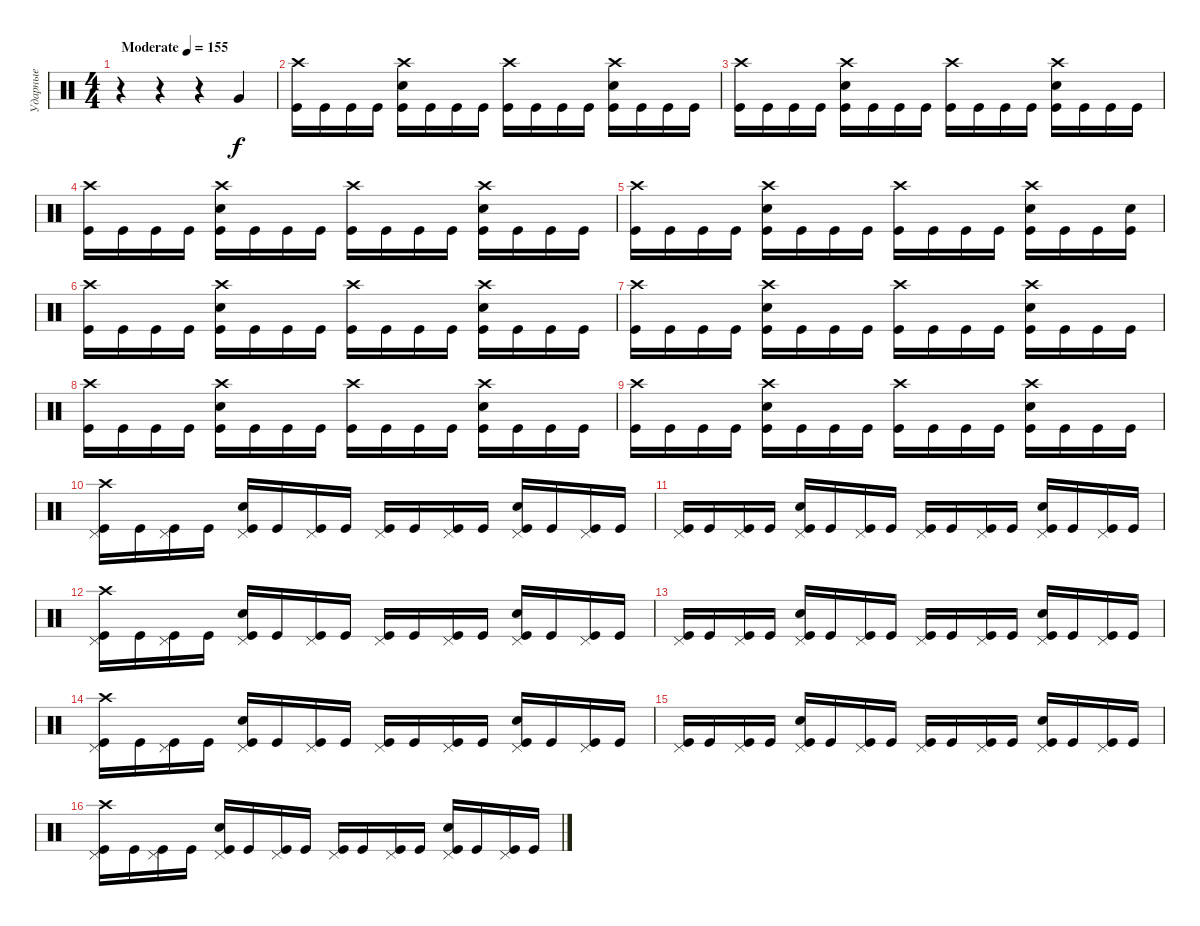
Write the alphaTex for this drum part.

\track ("Ударные" "Ударные") {instrument percussion}
\staff {score}
\articulation defaults
\ts (4 4)
\tempo (155 "Moderate")
\clef neutral
\ks c
r.4{dy f} r.4 r.4 "Very Low Tom (hit)".4 |
("Crash high (hit)" "Kick (hit)").16 "Kick (hit)".16 "Kick (hit)".16 "Kick (hit)".16 ("Electric Snare (hit)" "Crash high (hit)" "Kick (hit)").16 "Kick (hit)".16 "Kick (hit)".16 "Kick (hit)".16 ("Crash high (hit)" "Kick (hit)").16 "Kick (hit)".16 "Kick (hit)".16 "Kick (hit)".16 ("Electric Snare (hit)" "Crash high (hit)" "Kick (hit)").16 "Kick (hit)".16 "Kick (hit)".16 "Kick (hit)".16 |
("Crash high (hit)" "Kick (hit)").16 "Kick (hit)".16 "Kick (hit)".16 "Kick (hit)".16 ("Electric Snare (hit)" "Crash high (hit)" "Kick (hit)").16 "Kick (hit)".16 "Kick (hit)".16 "Kick (hit)".16 ("Crash high (hit)" "Kick (hit)").16 "Kick (hit)".16 "Kick (hit)".16 "Kick (hit)".16 ("Electric Snare (hit)" "Crash high (hit)" "Kick (hit)").16 "Kick (hit)".16 "Kick (hit)".16 "Kick (hit)".16 |
("Crash high (hit)" "Kick (hit)").16 "Kick (hit)".16 "Kick (hit)".16 "Kick (hit)".16 ("Electric Snare (hit)" "Crash high (hit)" "Kick (hit)").16 "Kick (hit)".16 "Kick (hit)".16 "Kick (hit)".16 ("Crash high (hit)" "Kick (hit)").16 "Kick (hit)".16 "Kick (hit)".16 "Kick (hit)".16 ("Electric Snare (hit)" "Crash high (hit)" "Kick (hit)").16 "Kick (hit)".16 "Kick (hit)".16 "Kick (hit)".16 |
("Crash high (hit)" "Kick (hit)").16 "Kick (hit)".16 "Kick (hit)".16 "Kick (hit)".16 ("Electric Snare (hit)" "Crash high (hit)" "Kick (hit)").16 "Kick (hit)".16 "Kick (hit)".16 "Kick (hit)".16 ("Crash high (hit)" "Kick (hit)").16 "Kick (hit)".16 "Kick (hit)".16 "Kick (hit)".16 ("Electric Snare (hit)" "Crash high (hit)" "Kick (hit)").16 "Kick (hit)".16 "Kick (hit)".16 ("Electric Snare (hit)" "Kick (hit)").16 |
("Crash high (hit)" "Kick (hit)").16 "Kick (hit)".16 "Kick (hit)".16 "Kick (hit)".16 ("Electric Snare (hit)" "Crash high (hit)" "Kick (hit)").16 "Kick (hit)".16 "Kick (hit)".16 "Kick (hit)".16 ("Crash high (hit)" "Kick (hit)").16 "Kick (hit)".16 "Kick (hit)".16 "Kick (hit)".16 ("Electric Snare (hit)" "Crash high (hit)" "Kick (hit)").16 "Kick (hit)".16 "Kick (hit)".16 "Kick (hit)".16 |
("Crash high (hit)" "Kick (hit)").16 "Kick (hit)".16 "Kick (hit)".16 "Kick (hit)".16 ("Electric Snare (hit)" "Crash high (hit)" "Kick (hit)").16 "Kick (hit)".16 "Kick (hit)".16 "Kick (hit)".16 ("Crash high (hit)" "Kick (hit)").16 "Kick (hit)".16 "Kick (hit)".16 "Kick (hit)".16 ("Electric Snare (hit)" "Crash high (hit)" "Kick (hit)").16 "Kick (hit)".16 "Kick (hit)".16 "Kick (hit)".16 |
("Crash high (hit)" "Kick (hit)").16 "Kick (hit)".16 "Kick (hit)".16 "Kick (hit)".16 ("Electric Snare (hit)" "Crash high (hit)" "Kick (hit)").16 "Kick (hit)".16 "Kick (hit)".16 "Kick (hit)".16 ("Crash high (hit)" "Kick (hit)").16 "Kick (hit)".16 "Kick (hit)".16 "Kick (hit)".16 ("Electric Snare (hit)" "Crash high (hit)" "Kick (hit)").16 "Kick (hit)".16 "Kick (hit)".16 "Kick (hit)".16 |
("Crash high (hit)" "Kick (hit)").16 "Kick (hit)".16 "Kick (hit)".16 "Kick (hit)".16 ("Electric Snare (hit)" "Crash high (hit)" "Kick (hit)").16 "Kick (hit)".16 "Kick (hit)".16 "Kick (hit)".16 ("Crash high (hit)" "Kick (hit)").16 "Kick (hit)".16 "Kick (hit)".16 "Kick (hit)".16 ("Electric Snare (hit)" "Crash high (hit)" "Kick (hit)").16 "Kick (hit)".16 "Kick (hit)".16 "Kick (hit)".16 |
("Pedal Hi-Hat (hit)" "Crash high (hit)" "Kick (hit)").16 "Kick (hit)".16 ("Pedal Hi-Hat (hit)" "Kick (hit)").16 "Kick (hit)".16 ("Pedal Hi-Hat (hit)" "Electric Snare (hit)" "Kick (hit)").16 "Kick (hit)".16 ("Pedal Hi-Hat (hit)" "Kick (hit)").16 "Kick (hit)".16 ("Pedal Hi-Hat (hit)" "Kick (hit)").16 "Kick (hit)".16 ("Pedal Hi-Hat (hit)" "Kick (hit)").16 "Kick (hit)".16 ("Pedal Hi-Hat (hit)" "Electric Snare (hit)" "Kick (hit)").16 "Kick (hit)".16 ("Pedal Hi-Hat (hit)" "Kick (hit)").16 "Kick (hit)".16 |
("Pedal Hi-Hat (hit)" "Kick (hit)").16 "Kick (hit)".16 ("Pedal Hi-Hat (hit)" "Kick (hit)").16 "Kick (hit)".16 ("Pedal Hi-Hat (hit)" "Electric Snare (hit)" "Kick (hit)").16 "Kick (hit)".16 ("Pedal Hi-Hat (hit)" "Kick (hit)").16 "Kick (hit)".16 ("Pedal Hi-Hat (hit)" "Kick (hit)").16 "Kick (hit)".16 ("Pedal Hi-Hat (hit)" "Kick (hit)").16 "Kick (hit)".16 ("Pedal Hi-Hat (hit)" "Electric Snare (hit)" "Kick (hit)").16 "Kick (hit)".16 ("Pedal Hi-Hat (hit)" "Kick (hit)").16 "Kick (hit)".16 |
("Pedal Hi-Hat (hit)" "Crash high (hit)" "Kick (hit)").16 "Kick (hit)".16 ("Pedal Hi-Hat (hit)" "Kick (hit)").16 "Kick (hit)".16 ("Pedal Hi-Hat (hit)" "Electric Snare (hit)" "Kick (hit)").16 "Kick (hit)".16 ("Pedal Hi-Hat (hit)" "Kick (hit)").16 "Kick (hit)".16 ("Pedal Hi-Hat (hit)" "Kick (hit)").16 "Kick (hit)".16 ("Pedal Hi-Hat (hit)" "Kick (hit)").16 "Kick (hit)".16 ("Pedal Hi-Hat (hit)" "Electric Snare (hit)" "Kick (hit)").16 "Kick (hit)".16 ("Pedal Hi-Hat (hit)" "Kick (hit)").16 "Kick (hit)".16 |
("Pedal Hi-Hat (hit)" "Kick (hit)").16 "Kick (hit)".16 ("Pedal Hi-Hat (hit)" "Kick (hit)").16 "Kick (hit)".16 ("Pedal Hi-Hat (hit)" "Electric Snare (hit)" "Kick (hit)").16 "Kick (hit)".16 ("Pedal Hi-Hat (hit)" "Kick (hit)").16 "Kick (hit)".16 ("Pedal Hi-Hat (hit)" "Kick (hit)").16 "Kick (hit)".16 ("Pedal Hi-Hat (hit)" "Kick (hit)").16 "Kick (hit)".16 ("Pedal Hi-Hat (hit)" "Electric Snare (hit)" "Kick (hit)").16 "Kick (hit)".16 ("Pedal Hi-Hat (hit)" "Kick (hit)").16 "Kick (hit)".16 |
("Pedal Hi-Hat (hit)" "Crash high (hit)" "Kick (hit)").16 "Kick (hit)".16 ("Pedal Hi-Hat (hit)" "Kick (hit)").16 "Kick (hit)".16 ("Pedal Hi-Hat (hit)" "Electric Snare (hit)" "Kick (hit)").16 "Kick (hit)".16 ("Pedal Hi-Hat (hit)" "Kick (hit)").16 "Kick (hit)".16 ("Pedal Hi-Hat (hit)" "Kick (hit)").16 "Kick (hit)".16 ("Pedal Hi-Hat (hit)" "Kick (hit)").16 "Kick (hit)".16 ("Pedal Hi-Hat (hit)" "Electric Snare (hit)" "Kick (hit)").16 "Kick (hit)".16 ("Pedal Hi-Hat (hit)" "Kick (hit)").16 "Kick (hit)".16 |
("Pedal Hi-Hat (hit)" "Kick (hit)").16 "Kick (hit)".16 ("Pedal Hi-Hat (hit)" "Kick (hit)").16 "Kick (hit)".16 ("Pedal Hi-Hat (hit)" "Electric Snare (hit)" "Kick (hit)").16 "Kick (hit)".16 ("Pedal Hi-Hat (hit)" "Kick (hit)").16 "Kick (hit)".16 ("Pedal Hi-Hat (hit)" "Kick (hit)").16 "Kick (hit)".16 ("Pedal Hi-Hat (hit)" "Kick (hit)").16 "Kick (hit)".16 ("Pedal Hi-Hat (hit)" "Electric Snare (hit)" "Kick (hit)").16 "Kick (hit)".16 ("Pedal Hi-Hat (hit)" "Kick (hit)").16 "Kick (hit)".16 |
("Pedal Hi-Hat (hit)" "Crash high (hit)" "Kick (hit)").16 "Kick (hit)".16 ("Pedal Hi-Hat (hit)" "Kick (hit)").16 "Kick (hit)".16 ("Pedal Hi-Hat (hit)" "Electric Snare (hit)" "Kick (hit)").16 "Kick (hit)".16 ("Pedal Hi-Hat (hit)" "Kick (hit)").16 "Kick (hit)".16 ("Pedal Hi-Hat (hit)" "Kick (hit)").16 "Kick (hit)".16 ("Pedal Hi-Hat (hit)" "Kick (hit)").16 "Kick (hit)".16 ("Pedal Hi-Hat (hit)" "Electric Snare (hit)" "Kick (hit)").16 "Kick (hit)".16 ("Pedal Hi-Hat (hit)" "Kick (hit)").16 "Kick (hit)".16
